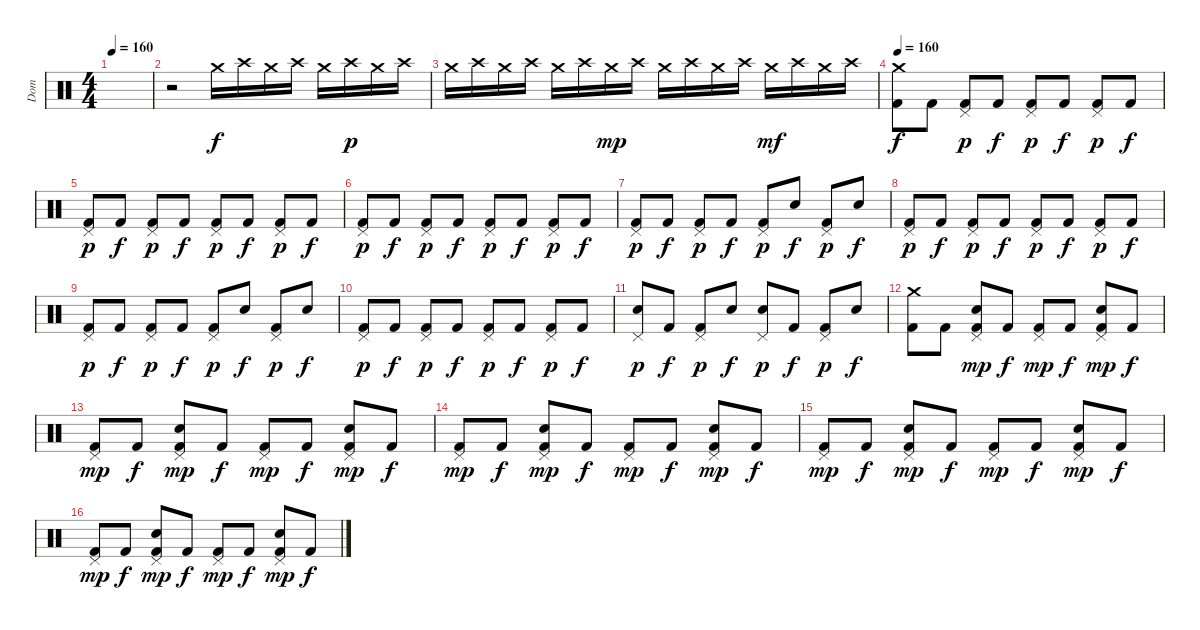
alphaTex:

\track ("Dom" "Dom") {instrument percussion}
\staff {score}
\articulation defaults
\ts (4 4)
\tempo 160
\clef neutral
\ks c
|
r.2 "Crash medium (hit)".16 "Crash high (hit)".16 "Crash medium (hit)".16 "Crash high (hit)".16 "Crash medium (hit)".16 "Crash high (hit)".16{dy p} "Crash medium (hit)".16 "Crash high (hit)".16 |
"Crash medium (hit)".16 "Crash high (hit)".16 "Crash medium (hit)".16 "Crash high (hit)".16 "Crash medium (hit)".16 "Crash high (hit)".16 "Crash medium (hit)".16{dy mp} "Crash high (hit)".16 "Crash medium (hit)".16 "Crash high (hit)".16 "Crash medium (hit)".16 "Crash high (hit)".16 "Crash medium (hit)".16{dy mf} "Crash high (hit)".16 "Crash medium (hit)".16 "Crash high (hit)".16 |
\tempo 160
("Crash medium (hit)" "Kick (hit) 2").8{dy f} "Kick (hit) 2".8 ("Pedal Hi-Hat (hit)" "Kick (hit) 2").8{dy p} "Kick (hit) 2".8{dy f} ("Pedal Hi-Hat (hit)" "Kick (hit) 2").8{dy p} "Kick (hit) 2".8{dy f} ("Pedal Hi-Hat (hit)" "Kick (hit) 2").8{dy p} "Kick (hit) 2".8{dy f} |
("Pedal Hi-Hat (hit)" "Kick (hit) 2").8{dy p} "Kick (hit) 2".8{dy f} ("Pedal Hi-Hat (hit)" "Kick (hit) 2").8{dy p} "Kick (hit) 2".8{dy f} ("Pedal Hi-Hat (hit)" "Kick (hit) 2").8{dy p} "Kick (hit) 2".8{dy f} ("Pedal Hi-Hat (hit)" "Kick (hit) 2").8{dy p} "Kick (hit) 2".8{dy f} |
("Pedal Hi-Hat (hit)" "Kick (hit) 2").8{dy p} "Kick (hit) 2".8{dy f} ("Pedal Hi-Hat (hit)" "Kick (hit) 2").8{dy p} "Kick (hit) 2".8{dy f} ("Pedal Hi-Hat (hit)" "Kick (hit) 2").8{dy p} "Kick (hit) 2".8{dy f} ("Pedal Hi-Hat (hit)" "Kick (hit) 2").8{dy p} "Kick (hit) 2".8{dy f} |
("Pedal Hi-Hat (hit)" "Kick (hit) 2").8{dy p} "Kick (hit) 2".8{dy f} ("Pedal Hi-Hat (hit)" "Kick (hit) 2").8{dy p} "Kick (hit) 2".8{dy f} ("Pedal Hi-Hat (hit)" "Kick (hit) 2").8{dy p} "Snare (hit) 2".8{dy f} ("Pedal Hi-Hat (hit)" "Kick (hit) 2").8{dy p} "Snare (hit) 2".8{dy f} |
("Pedal Hi-Hat (hit)" "Kick (hit) 2").8{dy p} "Kick (hit) 2".8{dy f} ("Pedal Hi-Hat (hit)" "Kick (hit) 2").8{dy p} "Kick (hit) 2".8{dy f} ("Pedal Hi-Hat (hit)" "Kick (hit) 2").8{dy p} "Kick (hit) 2".8{dy f} ("Pedal Hi-Hat (hit)" "Kick (hit) 2").8{dy p} "Kick (hit) 2".8{dy f} |
("Pedal Hi-Hat (hit)" "Kick (hit) 2").8{dy p} "Kick (hit) 2".8{dy f} ("Pedal Hi-Hat (hit)" "Kick (hit) 2").8{dy p} "Kick (hit) 2".8{dy f} ("Pedal Hi-Hat (hit)" "Kick (hit) 2").8{dy p} "Snare (hit) 2".8{dy f} ("Pedal Hi-Hat (hit)" "Kick (hit) 2").8{dy p} "Snare (hit) 2".8{dy f} |
("Pedal Hi-Hat (hit)" "Kick (hit) 2").8{dy p} "Kick (hit) 2".8{dy f} ("Pedal Hi-Hat (hit)" "Kick (hit) 2").8{dy p} "Kick (hit) 2".8{dy f} ("Pedal Hi-Hat (hit)" "Kick (hit) 2").8{dy p} "Kick (hit) 2".8{dy f} ("Pedal Hi-Hat (hit)" "Kick (hit) 2").8{dy p} "Kick (hit) 2".8{dy f} |
("Pedal Hi-Hat (hit)" "Snare (hit) 2").8{dy p} "Kick (hit) 2".8{dy f} ("Pedal Hi-Hat (hit)" "Kick (hit) 2").8{dy p} "Snare (hit) 2".8{dy f} ("Pedal Hi-Hat (hit)" "Snare (hit) 2").8{dy p} "Kick (hit) 2".8{dy f} ("Pedal Hi-Hat (hit)" "Kick (hit) 2").8{dy p} "Snare (hit) 2".8{dy f} |
("Crash medium (hit)" "Kick (hit) 2").8 "Kick (hit) 2".8 ("Pedal Hi-Hat (hit)" "Snare (hit) 2" "Kick (hit) 2").8{dy mp} "Kick (hit) 2".8{dy f} ("Pedal Hi-Hat (hit)" "Kick (hit) 2").8{dy mp} "Kick (hit) 2".8{dy f} ("Pedal Hi-Hat (hit)" "Snare (hit) 2" "Kick (hit) 2").8{dy mp} "Kick (hit) 2".8{dy f} |
("Pedal Hi-Hat (hit)" "Kick (hit) 2").8{dy mp} "Kick (hit) 2".8{dy f} ("Pedal Hi-Hat (hit)" "Snare (hit) 2" "Kick (hit) 2").8{dy mp} "Kick (hit) 2".8{dy f} ("Pedal Hi-Hat (hit)" "Kick (hit) 2").8{dy mp} "Kick (hit) 2".8{dy f} ("Pedal Hi-Hat (hit)" "Snare (hit) 2" "Kick (hit) 2").8{dy mp} "Kick (hit) 2".8{dy f} |
("Pedal Hi-Hat (hit)" "Kick (hit) 2").8{dy mp} "Kick (hit) 2".8{dy f} ("Pedal Hi-Hat (hit)" "Snare (hit) 2" "Kick (hit) 2").8{dy mp} "Kick (hit) 2".8{dy f} ("Pedal Hi-Hat (hit)" "Kick (hit) 2").8{dy mp} "Kick (hit) 2".8{dy f} ("Pedal Hi-Hat (hit)" "Snare (hit) 2" "Kick (hit) 2").8{dy mp} "Kick (hit) 2".8{dy f} |
("Pedal Hi-Hat (hit)" "Kick (hit) 2").8{dy mp} "Kick (hit) 2".8{dy f} ("Pedal Hi-Hat (hit)" "Snare (hit) 2" "Kick (hit) 2").8{dy mp} "Kick (hit) 2".8{dy f} ("Pedal Hi-Hat (hit)" "Kick (hit) 2").8{dy mp} "Kick (hit) 2".8{dy f} ("Pedal Hi-Hat (hit)" "Snare (hit) 2" "Kick (hit) 2").8{dy mp} "Kick (hit) 2".8{dy f} |
("Pedal Hi-Hat (hit)" "Kick (hit) 2").8{dy mp} "Kick (hit) 2".8{dy f} ("Pedal Hi-Hat (hit)" "Snare (hit) 2" "Kick (hit) 2").8{dy mp} "Kick (hit) 2".8{dy f} ("Pedal Hi-Hat (hit)" "Kick (hit) 2").8{dy mp} "Kick (hit) 2".8{dy f} ("Pedal Hi-Hat (hit)" "Snare (hit) 2" "Kick (hit) 2").8{dy mp} "Kick (hit) 2".8{dy f}
